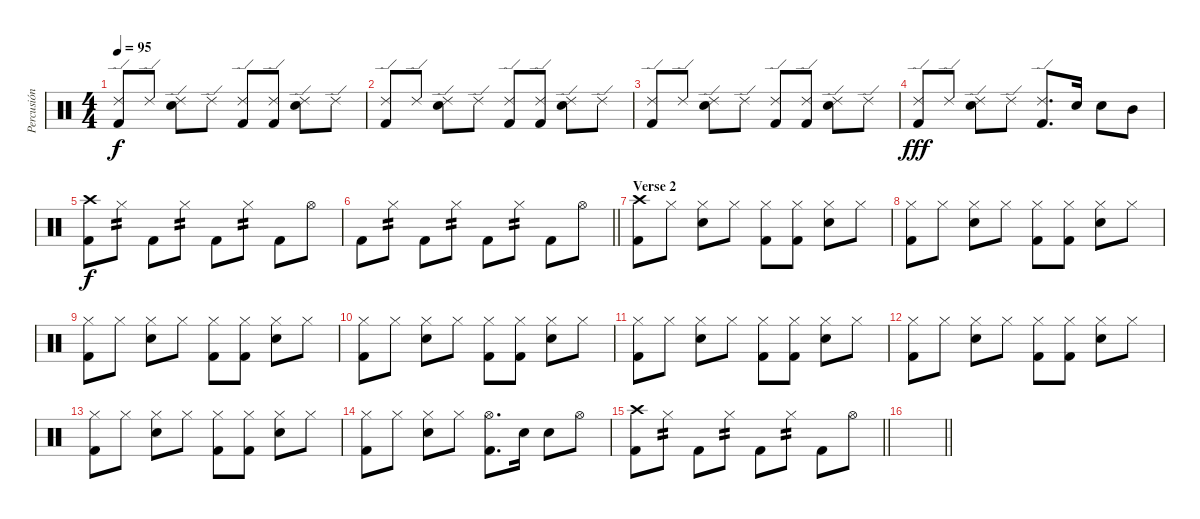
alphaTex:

\track ("Percusión" "Percusión") {instrument percussion}
\staff {score}
\articulation defaults
\ts (4 4)
\tempo 95
\clef neutral
\ks c
("Ride (edge) 2" "Kick (hit) 2").8{dy f} "Ride (edge) 2".8 ("Ride (edge) 2" "Electric Snare (hit)").8 "Ride (edge) 2".8 ("Ride (edge) 2" "Kick (hit) 2").8 ("Ride (edge) 2" "Kick (hit) 2").8 ("Ride (edge) 2" "Electric Snare (hit)").8 "Ride (edge) 2".8 |
("Ride (edge) 2" "Kick (hit) 2").8 "Ride (edge) 2".8 ("Ride (edge) 2" "Electric Snare (hit)").8 "Ride (edge) 2".8 ("Ride (edge) 2" "Kick (hit) 2").8 ("Ride (edge) 2" "Kick (hit) 2").8 ("Ride (edge) 2" "Electric Snare (hit)").8 "Ride (edge) 2".8 |
("Ride (edge) 2" "Kick (hit) 2").8 "Ride (edge) 2".8 ("Ride (edge) 2" "Electric Snare (hit)").8 "Ride (edge) 2".8 ("Ride (edge) 2" "Kick (hit) 2").8 ("Ride (edge) 2" "Kick (hit) 2").8 ("Ride (edge) 2" "Electric Snare (hit)").8 "Ride (edge) 2".8 |
("Ride (edge) 2" "Kick (hit) 2").8{dy fff} "Ride (edge) 2".8 ("Ride (edge) 2" "Electric Snare (hit)").8 "Ride (edge) 2".8 ("Ride (edge) 2" "Kick (hit) 2").8{d} "Electric Snare (hit)".16 "Electric Snare (hit)".8 "Mid Tom (hit)".8 |
("Crash high (hit)" "Kick (hit) 2").8{dy f} "Hi-Hat (closed)".8{tp 2} "Kick (hit) 2".8 "Hi-Hat (closed)".8{tp 2} "Kick (hit) 2".8 "Hi-Hat (closed)".8{tp 2} "Kick (hit) 2".8 "Hi-Hat (open)".8 |
\barLineRight lightlight "Kick (hit) 2".8 "Hi-Hat (closed)".8{tp 2} "Kick (hit) 2".8 "Hi-Hat (closed)".8{tp 2} "Kick (hit) 2".8 "Hi-Hat (closed)".8{tp 2} "Kick (hit) 2".8 "Hi-Hat (open)".8
|
\section ("" "Verse 2")
("Crash high (hit)" "Kick (hit) 2").8 "Hi-Hat (closed)".8 ("Hi-Hat (closed)" "Snare (hit) 2").8 "Hi-Hat (closed)".8 ("Hi-Hat (closed)" "Kick (hit) 2").8 ("Hi-Hat (closed)" "Kick (hit) 2").8 ("Hi-Hat (closed)" "Snare (hit) 2").8 "Hi-Hat (closed)".8 |
("Hi-Hat (closed)" "Kick (hit) 2").8 "Hi-Hat (closed)".8 ("Hi-Hat (closed)" "Snare (hit) 2").8 "Hi-Hat (closed)".8 ("Hi-Hat (closed)" "Kick (hit) 2").8 ("Hi-Hat (closed)" "Kick (hit) 2").8 ("Hi-Hat (closed)" "Snare (hit) 2").8 "Hi-Hat (closed)".8 |
("Hi-Hat (closed)" "Kick (hit) 2").8 "Hi-Hat (closed)".8 ("Hi-Hat (closed)" "Snare (hit) 2").8 "Hi-Hat (closed)".8 ("Hi-Hat (closed)" "Kick (hit) 2").8 ("Hi-Hat (closed)" "Kick (hit) 2").8 ("Hi-Hat (closed)" "Snare (hit) 2").8 "Hi-Hat (closed)".8 |
("Hi-Hat (closed)" "Kick (hit) 2").8 "Hi-Hat (closed)".8 ("Hi-Hat (closed)" "Snare (hit) 2").8 "Hi-Hat (closed)".8 ("Hi-Hat (closed)" "Kick (hit) 2").8 ("Hi-Hat (closed)" "Kick (hit) 2").8 ("Hi-Hat (closed)" "Snare (hit) 2").8 "Hi-Hat (closed)".8 |
("Hi-Hat (closed)" "Kick (hit) 2").8 "Hi-Hat (closed)".8 ("Hi-Hat (closed)" "Snare (hit) 2").8 "Hi-Hat (closed)".8 ("Hi-Hat (closed)" "Kick (hit) 2").8 ("Hi-Hat (closed)" "Kick (hit) 2").8 ("Hi-Hat (closed)" "Snare (hit) 2").8 "Hi-Hat (closed)".8 |
("Hi-Hat (closed)" "Kick (hit) 2").8 "Hi-Hat (closed)".8 ("Hi-Hat (closed)" "Snare (hit) 2").8 "Hi-Hat (closed)".8 ("Hi-Hat (closed)" "Kick (hit) 2").8 ("Hi-Hat (closed)" "Kick (hit) 2").8 ("Hi-Hat (closed)" "Snare (hit) 2").8 "Hi-Hat (closed)".8 |
("Hi-Hat (closed)" "Kick (hit) 2").8 "Hi-Hat (closed)".8 ("Hi-Hat (closed)" "Snare (hit) 2").8 "Hi-Hat (closed)".8 ("Hi-Hat (closed)" "Kick (hit) 2").8 ("Hi-Hat (closed)" "Kick (hit) 2").8 ("Hi-Hat (closed)" "Snare (hit) 2").8 "Hi-Hat (closed)".8 |
("Hi-Hat (closed)" "Kick (hit) 2").8 "Hi-Hat (closed)".8 ("Hi-Hat (closed)" "Snare (hit) 2").8 "Hi-Hat (closed)".8 ("Hi-Hat (open)" "Kick (hit) 2").8{d} "Snare (hit) 2".16 "Snare (hit) 2".8 "Hi-Hat (open)".8 |
\barLineRight lightlight
("Crash high (hit)" "Kick (hit) 2").8 "Hi-Hat (closed)".8{tp 2} "Kick (hit) 2".8 "Hi-Hat (closed)".8{tp 2} "Kick (hit) 2".8 "Hi-Hat (closed)".8{tp 2} "Kick (hit) 2".8 "Hi-Hat (open)".8 |
\barLineRight lightlight
